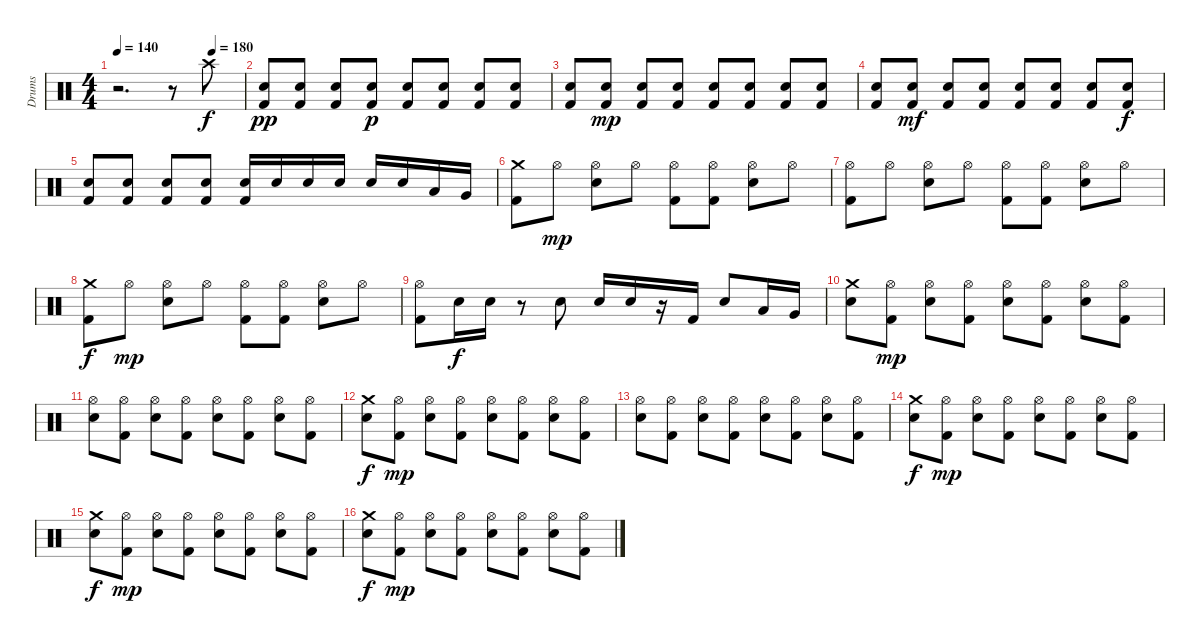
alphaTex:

\track ("Drums" "Drums") {instrument percussion}
\staff {score}
\articulation defaults
\ts (4 4)
\tempo 140
\tempo (180 0.75)
\clef neutral
\ks c
r.2{d dy f} r.8 "Crash high (hit)".8 |
("Snare (hit) 2" "Kick (hit) 2").8{dy pp} ("Snare (hit) 2" "Kick (hit) 2").8 ("Snare (hit) 2" "Kick (hit) 2").8 ("Snare (hit) 2" "Kick (hit) 2").8{dy p} ("Snare (hit) 2" "Kick (hit) 2").8 ("Snare (hit) 2" "Kick (hit) 2").8 ("Snare (hit) 2" "Kick (hit) 2").8 ("Snare (hit) 2" "Kick (hit) 2").8 |
("Snare (hit) 2" "Kick (hit) 2").8 ("Snare (hit) 2" "Kick (hit) 2").8{dy mp} ("Snare (hit) 2" "Kick (hit) 2").8 ("Snare (hit) 2" "Kick (hit) 2").8 ("Snare (hit) 2" "Kick (hit) 2").8 ("Snare (hit) 2" "Kick (hit) 2").8 ("Snare (hit) 2" "Kick (hit) 2").8 ("Snare (hit) 2" "Kick (hit) 2").8 |
("Snare (hit) 2" "Kick (hit) 2").8 ("Snare (hit) 2" "Kick (hit) 2").8{dy mf} ("Snare (hit) 2" "Kick (hit) 2").8 ("Snare (hit) 2" "Kick (hit) 2").8 ("Snare (hit) 2" "Kick (hit) 2").8 ("Snare (hit) 2" "Kick (hit) 2").8 ("Snare (hit) 2" "Kick (hit) 2").8 ("Snare (hit) 2" "Kick (hit) 2").8{dy f} |
("Snare (hit) 2" "Kick (hit) 2").8 ("Snare (hit) 2" "Kick (hit) 2").8 ("Snare (hit) 2" "Kick (hit) 2").8 ("Snare (hit) 2" "Kick (hit) 2").8 ("Snare (hit) 2" "Kick (hit) 2").16 "Snare (hit) 2".16 "Snare (hit) 2".16 "Snare (hit) 2".16 "Snare (hit) 2".16 "Snare (hit) 2".16 "Low Tom (hit)".16 "Very Low Tom (hit)".16 |
("Crash medium (hit)" "Kick (hit) 2").8 "Hi-Hat (open)".8{dy mp} ("Hi-Hat (open)" "Snare (hit) 2").8 "Hi-Hat (open)".8 ("Hi-Hat (open)" "Kick (hit) 2").8 ("Hi-Hat (open)" "Kick (hit) 2").8 ("Hi-Hat (open)" "Snare (hit) 2").8 "Hi-Hat (open)".8 |
("Hi-Hat (open)" "Kick (hit) 2").8 "Hi-Hat (open)".8 ("Hi-Hat (open)" "Snare (hit) 2").8 "Hi-Hat (open)".8 ("Hi-Hat (open)" "Kick (hit) 2").8 ("Hi-Hat (open)" "Kick (hit) 2").8 ("Hi-Hat (open)" "Snare (hit) 2").8 "Hi-Hat (open)".8 |
("Crash medium (hit)" "Kick (hit) 2").8{dy f} "Hi-Hat (open)".8{dy mp} ("Hi-Hat (open)" "Snare (hit) 2").8 "Hi-Hat (open)".8 ("Hi-Hat (open)" "Kick (hit) 2").8 ("Hi-Hat (open)" "Kick (hit) 2").8 ("Hi-Hat (open)" "Snare (hit) 2").8 "Hi-Hat (open)".8 |
("Hi-Hat (open)" "Kick (hit) 2").8 "Snare (hit) 2".16{dy f} "Snare (hit) 2".16 r.8 "Snare (hit) 2".8 "Snare (hit) 2".16 "Snare (hit) 2".16 r.16 "Kick (hit) 2".16 "Snare (hit) 2".8 "Low Tom (hit)".16 "Very Low Tom (hit)".16 |
("Crash medium (hit)" "Snare (hit) 2").8 ("Hi-Hat (open)" "Kick (hit) 2").8{dy mp} ("Hi-Hat (open)" "Snare (hit) 2").8 ("Hi-Hat (open)" "Kick (hit) 2").8 ("Hi-Hat (open)" "Snare (hit) 2").8 ("Hi-Hat (open)" "Kick (hit) 2").8 ("Hi-Hat (open)" "Snare (hit) 2").8 ("Hi-Hat (open)" "Kick (hit) 2").8 |
("Hi-Hat (open)" "Snare (hit) 2").8 ("Hi-Hat (open)" "Kick (hit) 2").8 ("Hi-Hat (open)" "Snare (hit) 2").8 ("Hi-Hat (open)" "Kick (hit) 2").8 ("Hi-Hat (open)" "Snare (hit) 2").8 ("Hi-Hat (open)" "Kick (hit) 2").8 ("Hi-Hat (open)" "Snare (hit) 2").8 ("Hi-Hat (open)" "Kick (hit) 2").8 |
("Crash medium (hit)" "Snare (hit) 2").8{dy f} ("Hi-Hat (open)" "Kick (hit) 2").8{dy mp} ("Hi-Hat (open)" "Snare (hit) 2").8 ("Hi-Hat (open)" "Kick (hit) 2").8 ("Hi-Hat (open)" "Snare (hit) 2").8 ("Hi-Hat (open)" "Kick (hit) 2").8 ("Hi-Hat (open)" "Snare (hit) 2").8 ("Hi-Hat (open)" "Kick (hit) 2").8 |
("Hi-Hat (open)" "Snare (hit) 2").8 ("Hi-Hat (open)" "Kick (hit) 2").8 ("Hi-Hat (open)" "Snare (hit) 2").8 ("Hi-Hat (open)" "Kick (hit) 2").8 ("Hi-Hat (open)" "Snare (hit) 2").8 ("Hi-Hat (open)" "Kick (hit) 2").8 ("Hi-Hat (open)" "Snare (hit) 2").8 ("Hi-Hat (open)" "Kick (hit) 2").8 |
("Crash medium (hit)" "Snare (hit) 2").8{dy f} ("Hi-Hat (open)" "Kick (hit) 2").8{dy mp} ("Hi-Hat (open)" "Snare (hit) 2").8 ("Hi-Hat (open)" "Kick (hit) 2").8 ("Hi-Hat (open)" "Snare (hit) 2").8 ("Hi-Hat (open)" "Kick (hit) 2").8 ("Hi-Hat (open)" "Snare (hit) 2").8 ("Hi-Hat (open)" "Kick (hit) 2").8 |
("Crash medium (hit)" "Snare (hit) 2").8{dy f} ("Hi-Hat (open)" "Kick (hit) 2").8{dy mp} ("Hi-Hat (open)" "Snare (hit) 2").8 ("Hi-Hat (open)" "Kick (hit) 2").8 ("Hi-Hat (open)" "Snare (hit) 2").8 ("Hi-Hat (open)" "Kick (hit) 2").8 ("Hi-Hat (open)" "Snare (hit) 2").8 ("Hi-Hat (open)" "Kick (hit) 2").8 |
("Crash medium (hit)" "Snare (hit) 2").8{dy f} ("Hi-Hat (open)" "Kick (hit) 2").8{dy mp} ("Hi-Hat (open)" "Snare (hit) 2").8 ("Hi-Hat (open)" "Kick (hit) 2").8 ("Hi-Hat (open)" "Snare (hit) 2").8 ("Hi-Hat (open)" "Kick (hit) 2").8 ("Hi-Hat (open)" "Snare (hit) 2").8 ("Hi-Hat (open)" "Kick (hit) 2").8
